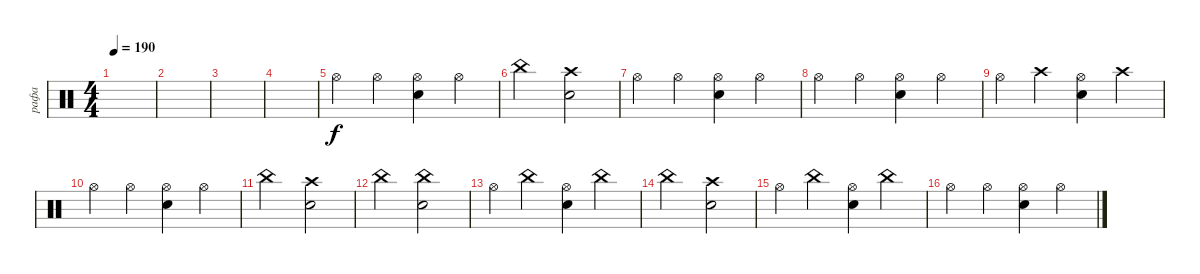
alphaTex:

\track ("рафа" "рафа") {instrument percussion}
\staff {score}
\articulation defaults
\ts (4 4)
\tempo 190
\clef neutral
\ks c
|
|
|
|
"Hi-Hat (open)".4 "Hi-Hat (open)".4 ("Hi-Hat (open)" "Snare (hit) 2").4 "Hi-Hat (open)".4 |
"China (hit)".2 ("Crash high (hit)" "Snare (hit) 2").2 |
"Hi-Hat (open)".4 "Hi-Hat (open)".4 ("Hi-Hat (open)" "Snare (hit) 2").4 "Hi-Hat (open)".4 |
"Hi-Hat (open)".4 "Hi-Hat (open)".4 ("Hi-Hat (open)" "Snare (hit) 2").4 "Hi-Hat (open)".4 |
"Hi-Hat (open)".4 "Crash high (hit)".4 ("Hi-Hat (open)" "Snare (hit) 2").4 "Crash high (hit)".4 |
"Hi-Hat (open)".4 "Hi-Hat (open)".4 ("Hi-Hat (open)" "Snare (hit) 2").4 "Hi-Hat (open)".4 |
"China (hit)".2 ("Crash high (hit)" "Snare (hit) 2").2 |
"China (hit)".2 ("China (hit)" "Snare (hit) 2").2 |
"Hi-Hat (open)".4 "China (hit)".4 ("Hi-Hat (open)" "Snare (hit) 2").4 "China (hit)".4 |
"China (hit)".2 ("Crash high (hit)" "Snare (hit) 2").2 |
"Hi-Hat (open)".4 "China (hit)".4 ("Hi-Hat (open)" "Snare (hit) 2").4 "China (hit)".4 |
"Hi-Hat (open)".4 "Hi-Hat (open)".4 ("Hi-Hat (open)" "Snare (hit) 2").4 "Hi-Hat (open)".4
